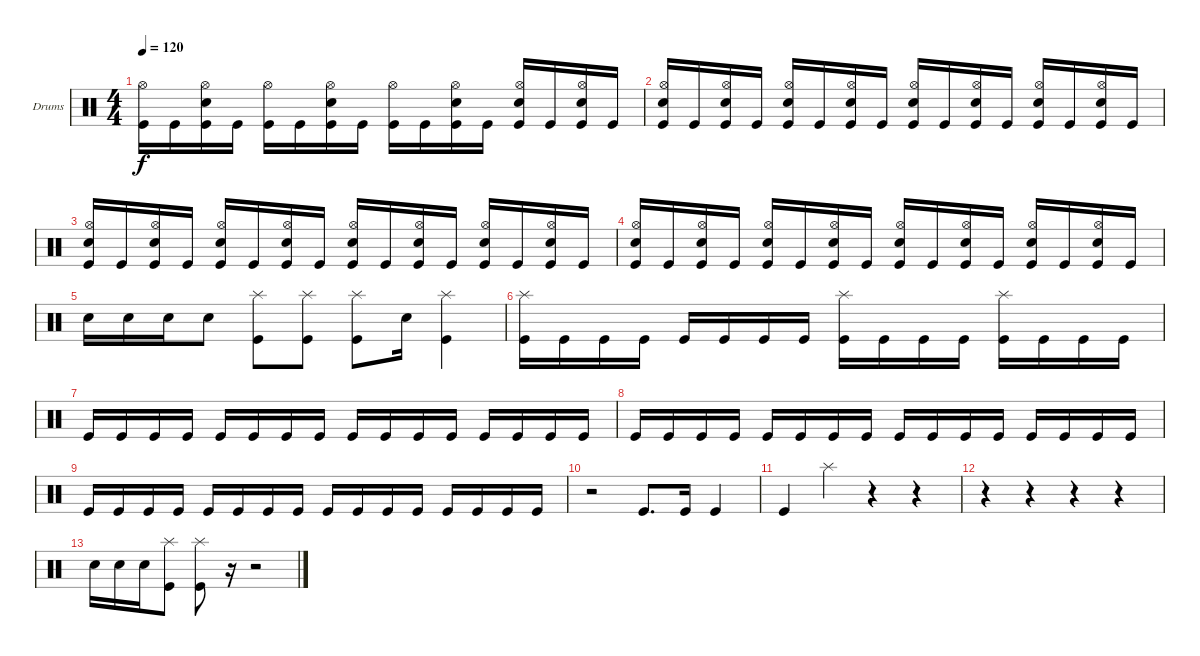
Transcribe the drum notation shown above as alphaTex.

\bracketExtendMode groupsimilarinstruments
\firstSystemTrackNameOrientation horizontal
\otherSystemsTrackNameOrientation horizontal
\track ("Drumkit" "Drums") {instrument percussion}
\staff {score}
\articulation defaults
\ts (4 4)
\tempo 120
\clef neutral
\ks c
("Kick (hit)" "Hi-Hat (open)").16{dy f} "Kick (hit)".16 ("Kick (hit)" "Snare (hit) 2" "Hi-Hat (open)").16 "Kick (hit)".16 ("Kick (hit)" "Hi-Hat (open)").16 "Kick (hit)".16 ("Kick (hit)" "Snare (hit) 2" "Hi-Hat (open)").16 "Kick (hit)".16 ("Kick (hit)" "Hi-Hat (open)").16 "Kick (hit)".16 ("Kick (hit)" "Snare (hit) 2" "Hi-Hat (open)").16 "Kick (hit)".16 ("Kick (hit)" "Hi-Hat (open)" "Snare (hit) 2").16 "Kick (hit)".16 ("Kick (hit)" "Snare (hit) 2" "Hi-Hat (open)").16 "Kick (hit)".16 |
("Kick (hit)" "Hi-Hat (open)" "Snare (hit) 2").16 "Kick (hit)".16 ("Kick (hit)" "Snare (hit) 2" "Hi-Hat (open)").16 "Kick (hit)".16 ("Kick (hit)" "Hi-Hat (open)" "Snare (hit) 2").16 "Kick (hit)".16 ("Kick (hit)" "Snare (hit) 2" "Hi-Hat (open)").16 "Kick (hit)".16 ("Kick (hit)" "Hi-Hat (open)" "Snare (hit) 2").16 "Kick (hit)".16 ("Kick (hit)" "Snare (hit) 2" "Hi-Hat (open)").16 "Kick (hit)".16 ("Kick (hit)" "Hi-Hat (open)" "Snare (hit) 2").16 "Kick (hit)".16 ("Kick (hit)" "Snare (hit) 2" "Hi-Hat (open)").16 "Kick (hit)".16 |
("Kick (hit)" "Hi-Hat (open)" "Snare (hit) 2").16 "Kick (hit)".16 ("Kick (hit)" "Snare (hit) 2" "Hi-Hat (open)").16 "Kick (hit)".16 ("Kick (hit)" "Hi-Hat (open)" "Snare (hit) 2").16 "Kick (hit)".16 ("Kick (hit)" "Snare (hit) 2" "Hi-Hat (open)").16 "Kick (hit)".16 ("Kick (hit)" "Hi-Hat (open)" "Snare (hit) 2").16 "Kick (hit)".16 ("Kick (hit)" "Snare (hit) 2" "Hi-Hat (open)").16 "Kick (hit)".16 ("Kick (hit)" "Hi-Hat (open)" "Snare (hit) 2").16 "Kick (hit)".16 ("Kick (hit)" "Snare (hit) 2" "Hi-Hat (open)").16 "Kick (hit)".16 |
("Kick (hit)" "Hi-Hat (open)" "Snare (hit) 2").16 "Kick (hit)".16 ("Kick (hit)" "Snare (hit) 2" "Hi-Hat (open)").16 "Kick (hit)".16 ("Kick (hit)" "Hi-Hat (open)" "Snare (hit) 2").16 "Kick (hit)".16 ("Kick (hit)" "Snare (hit) 2" "Hi-Hat (open)").16 "Kick (hit)".16 ("Kick (hit)" "Hi-Hat (open)" "Snare (hit) 2").16 "Kick (hit)".16 ("Kick (hit)" "Snare (hit) 2" "Hi-Hat (open)").16 "Kick (hit)".16 ("Kick (hit)" "Hi-Hat (open)" "Snare (hit) 2").16 "Kick (hit)".16 ("Kick (hit)" "Snare (hit) 2" "Hi-Hat (open)").16 "Kick (hit)".16 |
"Snare (hit) 2".16 "Snare (hit) 2".16 "Snare (hit) 2".16 "Snare (hit) 2".8 ("Kick (hit)" "Splash (hit)").8 ("Kick (hit)" "Splash (hit)").8 ("Kick (hit)" "Splash (hit)").8 "Snare (hit) 2".16 ("Kick (hit)" "Splash (hit)").4 |
("Kick (hit)" "Splash (hit)").16 "Kick (hit)".16 "Kick (hit)".16 "Kick (hit)".16 "Kick (hit)".16 "Kick (hit)".16 "Kick (hit)".16 "Kick (hit)".16 ("Kick (hit)" "Splash (hit)").16 "Kick (hit)".16 "Kick (hit)".16 "Kick (hit)".16 ("Kick (hit)" "Splash (hit)").16 "Kick (hit)".16 "Kick (hit)".16 "Kick (hit)".16 |
"Kick (hit)".16 "Kick (hit)".16 "Kick (hit)".16 "Kick (hit)".16 "Kick (hit)".16 "Kick (hit)".16 "Kick (hit)".16 "Kick (hit)".16 "Kick (hit)".16 "Kick (hit)".16 "Kick (hit)".16 "Kick (hit)".16 "Kick (hit)".16 "Kick (hit)".16 "Kick (hit)".16 "Kick (hit)".16 |
"Kick (hit)".16 "Kick (hit)".16 "Kick (hit)".16 "Kick (hit)".16 "Kick (hit)".16 "Kick (hit)".16 "Kick (hit)".16 "Kick (hit)".16 "Kick (hit)".16 "Kick (hit)".16 "Kick (hit)".16 "Kick (hit)".16 "Kick (hit)".16 "Kick (hit)".16 "Kick (hit)".16 "Kick (hit)".16 |
"Kick (hit)".16 "Kick (hit)".16 "Kick (hit)".16 "Kick (hit)".16 "Kick (hit)".16 "Kick (hit)".16 "Kick (hit)".16 "Kick (hit)".16 "Kick (hit)".16 "Kick (hit)".16 "Kick (hit)".16 "Kick (hit)".16 "Kick (hit)".16 "Kick (hit)".16 "Kick (hit)".16 "Kick (hit)".16 |
r.2 "Kick (hit)".8{d} "Kick (hit)".16 "Kick (hit)".4 |
"Kick (hit)".4 "Splash (hit)".4 r.4 r.4 |
r.4 r.4 r.4 r.4 |
"Snare (hit) 2".16 "Snare (hit) 2".16 "Snare (hit) 2".16 ("Kick (hit)" "Splash (hit)").8 ("Kick (hit)" "Splash (hit)").8 r.16 r.2
